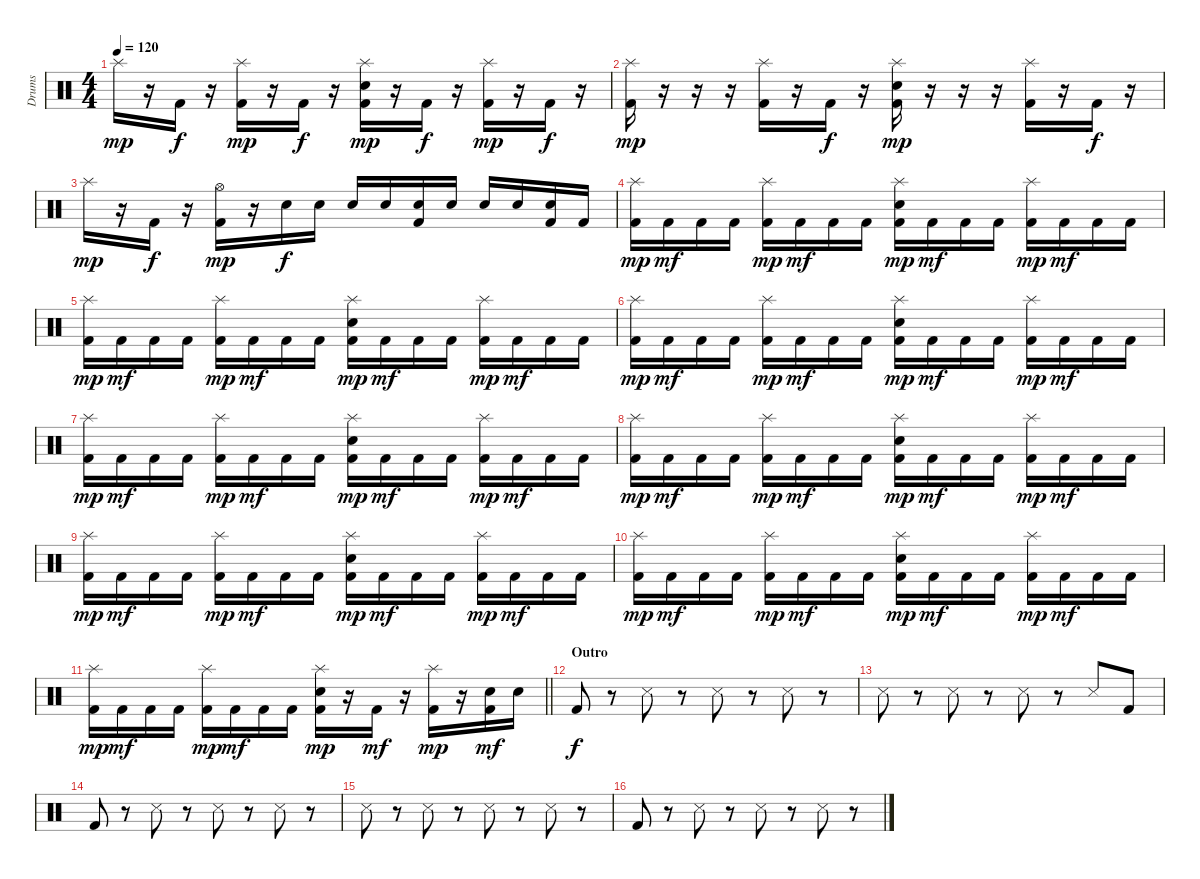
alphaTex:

\track ("Drums" "Drums") {instrument percussion}
\staff {score}
\articulation defaults
\ts (4 4)
\tempo 120
\clef neutral
\ks c "Splash (hit)".16{dy mp}
r.16 "Kick (hit) 2".16{dy f} r.16 ("Kick (hit) 2" "Splash (hit)").16{dy mp} r.16 "Kick (hit) 2".16{dy f} r.16 ("Kick (hit) 2" "Splash (hit)" "Snare (hit) 2").16{dy mp} r.16 "Kick (hit) 2".16{dy f} r.16 ("Kick (hit) 2" "Splash (hit)").16{dy mp} r.16 "Kick (hit) 2".16{dy f} r.16 |
("Kick (hit) 2" "Splash (hit)").16{dy mp} r.16 r.16 r.16 ("Kick (hit) 2" "Splash (hit)").16 r.16 "Kick (hit) 2".16{dy f} r.16 ("Kick (hit) 2" "Splash (hit)" "Snare (hit) 2").16{dy mp} r.16 r.16 r.16 ("Kick (hit) 2" "Splash (hit)").16 r.16 "Kick (hit) 2".16{dy f} r.16 |
"Splash (hit)".16{dy mp} r.16 "Kick (hit) 2".16{dy f} r.16 ("Kick (hit) 2" "Hi-Hat (open)").16{dy mp} r.16 "Snare (hit) 2".16{dy f} "Snare (hit) 2".16 "Snare (hit) 2".16 "Snare (hit) 2".16 ("Kick (hit) 2" "Snare (hit) 2").16 "Snare (hit) 2".16 "Snare (hit) 2".16 "Snare (hit) 2".16 ("Kick (hit) 2" "Snare (hit) 2").16 "Kick (hit) 2".16 |
("Kick (hit) 2" "Splash (hit)").16{dy mp} "Kick (hit) 2".16{dy mf} "Kick (hit) 2".16 "Kick (hit) 2".16 ("Kick (hit) 2" "Splash (hit)").16{dy mp} "Kick (hit) 2".16{dy mf} "Kick (hit) 2".16 "Kick (hit) 2".16 ("Kick (hit) 2" "Splash (hit)" "Snare (hit) 2").16{dy mp} "Kick (hit) 2".16{dy mf} "Kick (hit) 2".16 "Kick (hit) 2".16 ("Kick (hit) 2" "Splash (hit)").16{dy mp} "Kick (hit) 2".16{dy mf} "Kick (hit) 2".16 "Kick (hit) 2".16 |
("Kick (hit) 2" "Splash (hit)").16{dy mp} "Kick (hit) 2".16{dy mf} "Kick (hit) 2".16 "Kick (hit) 2".16 ("Kick (hit) 2" "Splash (hit)").16{dy mp} "Kick (hit) 2".16{dy mf} "Kick (hit) 2".16 "Kick (hit) 2".16 ("Kick (hit) 2" "Splash (hit)" "Snare (hit) 2").16{dy mp} "Kick (hit) 2".16{dy mf} "Kick (hit) 2".16 "Kick (hit) 2".16 ("Kick (hit) 2" "Splash (hit)").16{dy mp} "Kick (hit) 2".16{dy mf} "Kick (hit) 2".16 "Kick (hit) 2".16 |
("Kick (hit) 2" "Splash (hit)").16{dy mp} "Kick (hit) 2".16{dy mf} "Kick (hit) 2".16 "Kick (hit) 2".16 ("Kick (hit) 2" "Splash (hit)").16{dy mp} "Kick (hit) 2".16{dy mf} "Kick (hit) 2".16 "Kick (hit) 2".16 ("Kick (hit) 2" "Splash (hit)" "Snare (hit) 2").16{dy mp} "Kick (hit) 2".16{dy mf} "Kick (hit) 2".16 "Kick (hit) 2".16 ("Kick (hit) 2" "Splash (hit)").16{dy mp} "Kick (hit) 2".16{dy mf} "Kick (hit) 2".16 "Kick (hit) 2".16 |
("Kick (hit) 2" "Splash (hit)").16{dy mp} "Kick (hit) 2".16{dy mf} "Kick (hit) 2".16 "Kick (hit) 2".16 ("Kick (hit) 2" "Splash (hit)").16{dy mp} "Kick (hit) 2".16{dy mf} "Kick (hit) 2".16 "Kick (hit) 2".16 ("Kick (hit) 2" "Splash (hit)" "Snare (hit) 2").16{dy mp} "Kick (hit) 2".16{dy mf} "Kick (hit) 2".16 "Kick (hit) 2".16 ("Kick (hit) 2" "Splash (hit)").16{dy mp} "Kick (hit) 2".16{dy mf} "Kick (hit) 2".16 "Kick (hit) 2".16 |
("Kick (hit) 2" "Splash (hit)").16{dy mp} "Kick (hit) 2".16{dy mf} "Kick (hit) 2".16 "Kick (hit) 2".16 ("Kick (hit) 2" "Splash (hit)").16{dy mp} "Kick (hit) 2".16{dy mf} "Kick (hit) 2".16 "Kick (hit) 2".16 ("Kick (hit) 2" "Splash (hit)" "Snare (hit) 2").16{dy mp} "Kick (hit) 2".16{dy mf} "Kick (hit) 2".16 "Kick (hit) 2".16 ("Kick (hit) 2" "Splash (hit)").16{dy mp} "Kick (hit) 2".16{dy mf} "Kick (hit) 2".16 "Kick (hit) 2".16 |
("Kick (hit) 2" "Splash (hit)").16{dy mp} "Kick (hit) 2".16{dy mf} "Kick (hit) 2".16 "Kick (hit) 2".16 ("Kick (hit) 2" "Splash (hit)").16{dy mp} "Kick (hit) 2".16{dy mf} "Kick (hit) 2".16 "Kick (hit) 2".16 ("Kick (hit) 2" "Splash (hit)" "Snare (hit) 2").16{dy mp} "Kick (hit) 2".16{dy mf} "Kick (hit) 2".16 "Kick (hit) 2".16 ("Kick (hit) 2" "Splash (hit)").16{dy mp} "Kick (hit) 2".16{dy mf} "Kick (hit) 2".16 "Kick (hit) 2".16 |
("Kick (hit) 2" "Splash (hit)").16{dy mp} "Kick (hit) 2".16{dy mf} "Kick (hit) 2".16 "Kick (hit) 2".16 ("Kick (hit) 2" "Splash (hit)").16{dy mp} "Kick (hit) 2".16{dy mf} "Kick (hit) 2".16 "Kick (hit) 2".16 ("Kick (hit) 2" "Splash (hit)" "Snare (hit) 2").16{dy mp} "Kick (hit) 2".16{dy mf} "Kick (hit) 2".16 "Kick (hit) 2".16 ("Kick (hit) 2" "Splash (hit)").16{dy mp} "Kick (hit) 2".16{dy mf} "Kick (hit) 2".16 "Kick (hit) 2".16 |
\barLineRight lightlight
("Kick (hit) 2" "Splash (hit)").16{dy mp} "Kick (hit) 2".16{dy mf} "Kick (hit) 2".16 "Kick (hit) 2".16 ("Kick (hit) 2" "Splash (hit)").16{dy mp} "Kick (hit) 2".16{dy mf} "Kick (hit) 2".16 "Kick (hit) 2".16 ("Kick (hit) 2" "Splash (hit)" "Snare (hit) 2").16{dy mp} r.16 "Kick (hit) 2".16{dy mf} r.16 ("Kick (hit) 2" "Splash (hit)").16{dy mp} r.16 ("Kick (hit) 2" "Snare (hit) 2").16{dy mf} "Snare (hit) 2".16 |
\section ("" "Outro")
"Kick (hit) 2".8{dy f} r.8 "Snare (side stick) 3".8 r.8 "Snare (side stick) 3".8 r.8 "Snare (side stick) 3".8 r.8 |
"Snare (side stick) 3".8 r.8 "Snare (side stick) 3".8 r.8 "Snare (side stick) 3".8 r.8 "Snare (side stick) 3".8 "Kick (hit) 2".8 |
"Kick (hit) 2".8 r.8 "Snare (side stick) 3".8 r.8 "Snare (side stick) 3".8 r.8 "Snare (side stick) 3".8 r.8 |
"Snare (side stick) 3".8 r.8 "Snare (side stick) 3".8 r.8 "Snare (side stick) 3".8 r.8 "Snare (side stick) 3".8 r.8 |
"Kick (hit) 2".8 r.8 "Snare (side stick) 3".8 r.8 "Snare (side stick) 3".8 r.8 "Snare (side stick) 3".8 r.8
